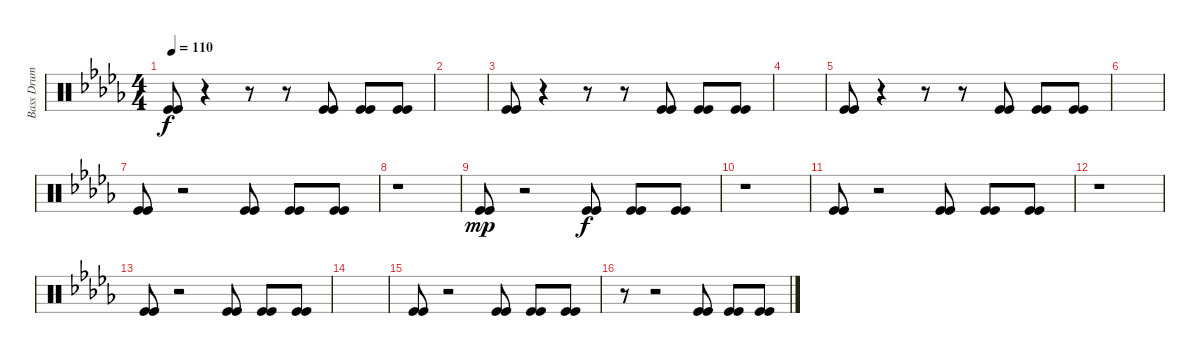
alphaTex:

\track ("Bass Drum" "Bass Drum") {instrument percussion}
\staff {score}
\articulation defaults
\ts (4 4)
\tempo 110
\clef neutral
\ks db
("Kick (hit)" "Kick (hit)").8{dy f} r.4 r.8 r.8 ("Kick (hit)" "Kick (hit)").8 ("Kick (hit)" "Kick (hit)").8 ("Kick (hit)" "Kick (hit)").8 |
|
("Kick (hit)" "Kick (hit)").8 r.4 r.8 r.8 ("Kick (hit)" "Kick (hit)").8 ("Kick (hit)" "Kick (hit)").8 ("Kick (hit)" "Kick (hit)").8 |
|
("Kick (hit)" "Kick (hit)").8 r.4 r.8 r.8 ("Kick (hit)" "Kick (hit)").8 ("Kick (hit)" "Kick (hit)").8 ("Kick (hit)" "Kick (hit)").8 |
|
("Kick (hit)" "Kick (hit)").8 r.2 ("Kick (hit)" "Kick (hit)").8 ("Kick (hit)" "Kick (hit)").8 ("Kick (hit)" "Kick (hit)").8 |
r.1 |
("Kick (hit)" "Kick (hit)").8{dy mp} r.2 ("Kick (hit)" "Kick (hit)").8{dy f} ("Kick (hit)" "Kick (hit)").8 ("Kick (hit)" "Kick (hit)").8 |
r.1 |
("Kick (hit)" "Kick (hit)").8 r.2 ("Kick (hit)" "Kick (hit)").8 ("Kick (hit)" "Kick (hit)").8 ("Kick (hit)" "Kick (hit)").8 |
r.1 |
("Kick (hit)" "Kick (hit)").8 r.2 ("Kick (hit)" "Kick (hit)").8 ("Kick (hit)" "Kick (hit)").8 ("Kick (hit)" "Kick (hit)").8 |
|
("Kick (hit)" "Kick (hit)").8 r.2 ("Kick (hit)" "Kick (hit)").8 ("Kick (hit)" "Kick (hit)").8 ("Kick (hit)" "Kick (hit)").8 |
r.8 r.2 ("Kick (hit)" "Kick (hit)").8 ("Kick (hit)" "Kick (hit)").8 ("Kick (hit)" "Kick (hit)").8
